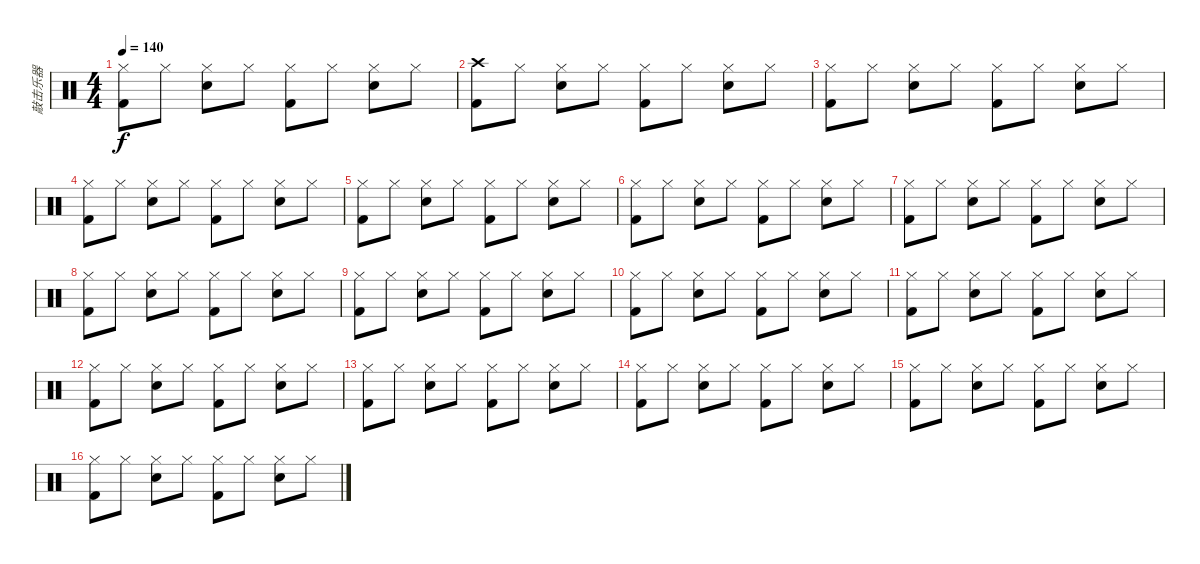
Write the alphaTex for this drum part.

\track ("敲击乐器" "敲击乐器") {instrument percussion}
\staff {score}
\articulation defaults
\ts (4 4)
\tempo 140
\clef neutral
\ks c
("Kick (hit) 2" "Hi-Hat (closed)").8{dy f} "Hi-Hat (closed)".8 ("Snare (hit) 2" "Hi-Hat (closed)").8 "Hi-Hat (closed)".8 ("Kick (hit) 2" "Hi-Hat (closed)").8 "Hi-Hat (closed)".8 ("Snare (hit) 2" "Hi-Hat (closed)").8 "Hi-Hat (closed)".8 |
("Kick (hit) 2" "Crash high (hit)").8 "Hi-Hat (closed)".8 ("Snare (hit) 2" "Hi-Hat (closed)").8 "Hi-Hat (closed)".8 ("Kick (hit) 2" "Hi-Hat (closed)").8 "Hi-Hat (closed)".8 ("Snare (hit) 2" "Hi-Hat (closed)").8 "Hi-Hat (closed)".8 |
("Kick (hit) 2" "Hi-Hat (closed)").8 "Hi-Hat (closed)".8 ("Snare (hit) 2" "Hi-Hat (closed)").8 "Hi-Hat (closed)".8 ("Kick (hit) 2" "Hi-Hat (closed)").8 "Hi-Hat (closed)".8 ("Snare (hit) 2" "Hi-Hat (closed)").8 "Hi-Hat (closed)".8 |
("Kick (hit) 2" "Hi-Hat (closed)").8 "Hi-Hat (closed)".8 ("Snare (hit) 2" "Hi-Hat (closed)").8 "Hi-Hat (closed)".8 ("Kick (hit) 2" "Hi-Hat (closed)").8 "Hi-Hat (closed)".8 ("Snare (hit) 2" "Hi-Hat (closed)").8 "Hi-Hat (closed)".8 |
("Kick (hit) 2" "Hi-Hat (closed)").8 "Hi-Hat (closed)".8 ("Snare (hit) 2" "Hi-Hat (closed)").8 "Hi-Hat (closed)".8 ("Kick (hit) 2" "Hi-Hat (closed)").8 "Hi-Hat (closed)".8 ("Snare (hit) 2" "Hi-Hat (closed)").8 "Hi-Hat (closed)".8 |
("Kick (hit) 2" "Hi-Hat (closed)").8 "Hi-Hat (closed)".8 ("Snare (hit) 2" "Hi-Hat (closed)").8 "Hi-Hat (closed)".8 ("Kick (hit) 2" "Hi-Hat (closed)").8 "Hi-Hat (closed)".8 ("Snare (hit) 2" "Hi-Hat (closed)").8 "Hi-Hat (closed)".8 |
("Kick (hit) 2" "Hi-Hat (closed)").8 "Hi-Hat (closed)".8 ("Snare (hit) 2" "Hi-Hat (closed)").8 "Hi-Hat (closed)".8 ("Kick (hit) 2" "Hi-Hat (closed)").8 "Hi-Hat (closed)".8 ("Snare (hit) 2" "Hi-Hat (closed)").8 "Hi-Hat (closed)".8 |
("Kick (hit) 2" "Hi-Hat (closed)").8 "Hi-Hat (closed)".8 ("Snare (hit) 2" "Hi-Hat (closed)").8 "Hi-Hat (closed)".8 ("Kick (hit) 2" "Hi-Hat (closed)").8 "Hi-Hat (closed)".8 ("Snare (hit) 2" "Hi-Hat (closed)").8 "Hi-Hat (closed)".8 |
("Kick (hit) 2" "Hi-Hat (closed)").8 "Hi-Hat (closed)".8 ("Snare (hit) 2" "Hi-Hat (closed)").8 "Hi-Hat (closed)".8 ("Kick (hit) 2" "Hi-Hat (closed)").8 "Hi-Hat (closed)".8 ("Snare (hit) 2" "Hi-Hat (closed)").8 "Hi-Hat (closed)".8 |
("Kick (hit) 2" "Hi-Hat (closed)").8 "Hi-Hat (closed)".8 ("Snare (hit) 2" "Hi-Hat (closed)").8 "Hi-Hat (closed)".8 ("Kick (hit) 2" "Hi-Hat (closed)").8 "Hi-Hat (closed)".8 ("Snare (hit) 2" "Hi-Hat (closed)").8 "Hi-Hat (closed)".8 |
("Kick (hit) 2" "Hi-Hat (closed)").8 "Hi-Hat (closed)".8 ("Snare (hit) 2" "Hi-Hat (closed)").8 "Hi-Hat (closed)".8 ("Kick (hit) 2" "Hi-Hat (closed)").8 "Hi-Hat (closed)".8 ("Snare (hit) 2" "Hi-Hat (closed)").8 "Hi-Hat (closed)".8 |
("Kick (hit) 2" "Hi-Hat (closed)").8 "Hi-Hat (closed)".8 ("Snare (hit) 2" "Hi-Hat (closed)").8 "Hi-Hat (closed)".8 ("Kick (hit) 2" "Hi-Hat (closed)").8 "Hi-Hat (closed)".8 ("Snare (hit) 2" "Hi-Hat (closed)").8 "Hi-Hat (closed)".8 |
("Kick (hit) 2" "Hi-Hat (closed)").8 "Hi-Hat (closed)".8 ("Snare (hit) 2" "Hi-Hat (closed)").8 "Hi-Hat (closed)".8 ("Kick (hit) 2" "Hi-Hat (closed)").8 "Hi-Hat (closed)".8 ("Snare (hit) 2" "Hi-Hat (closed)").8 "Hi-Hat (closed)".8 |
("Kick (hit) 2" "Hi-Hat (closed)").8 "Hi-Hat (closed)".8 ("Snare (hit) 2" "Hi-Hat (closed)").8 "Hi-Hat (closed)".8 ("Kick (hit) 2" "Hi-Hat (closed)").8 "Hi-Hat (closed)".8 ("Snare (hit) 2" "Hi-Hat (closed)").8 "Hi-Hat (closed)".8 |
("Kick (hit) 2" "Hi-Hat (closed)").8 "Hi-Hat (closed)".8 ("Snare (hit) 2" "Hi-Hat (closed)").8 "Hi-Hat (closed)".8 ("Kick (hit) 2" "Hi-Hat (closed)").8 "Hi-Hat (closed)".8 ("Snare (hit) 2" "Hi-Hat (closed)").8 "Hi-Hat (closed)".8 |
("Kick (hit) 2" "Hi-Hat (closed)").8 "Hi-Hat (closed)".8 ("Snare (hit) 2" "Hi-Hat (closed)").8 "Hi-Hat (closed)".8 ("Kick (hit) 2" "Hi-Hat (closed)").8 "Hi-Hat (closed)".8 ("Snare (hit) 2" "Hi-Hat (closed)").8 "Hi-Hat (closed)".8
